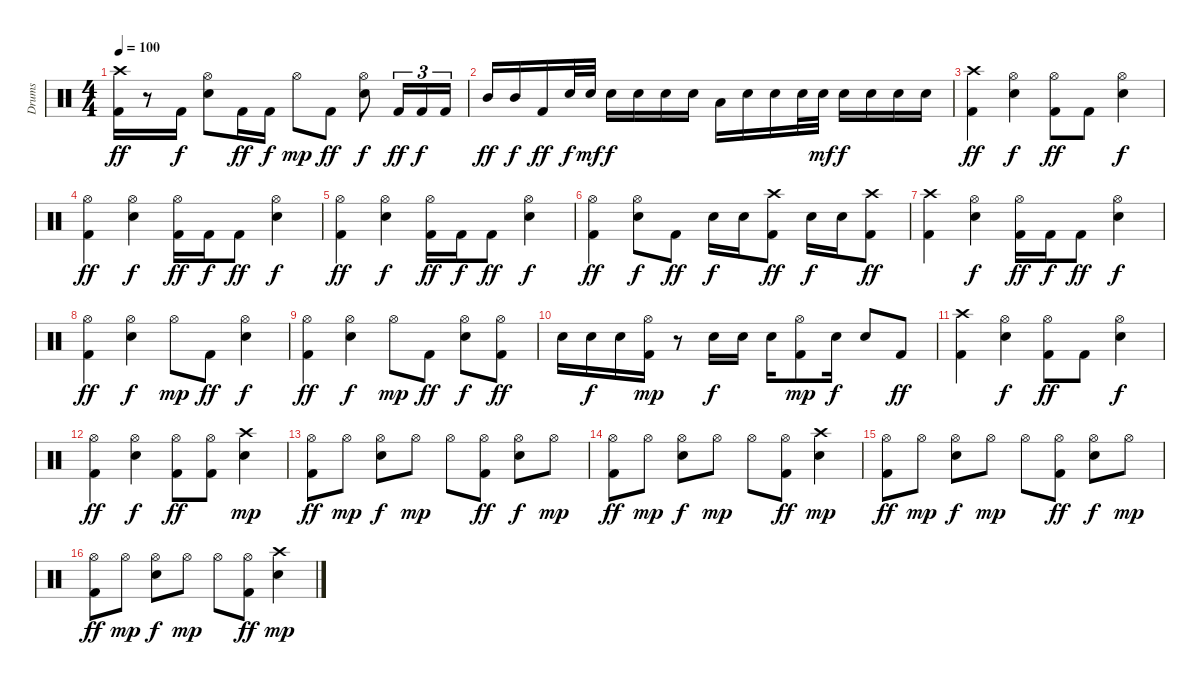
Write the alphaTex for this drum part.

\track ("Drums" "Drums") {instrument percussion}
\staff {score}
\articulation defaults
\ts (4 4)
\tempo 100
\clef neutral
\ks c
("Crash high (hit)" "Kick (hit) 2").16{dy ff} r.8 "Kick (hit) 2".16{dy f} ("Hi-Hat (open)" "Electric Snare (hit)").8 "Kick (hit) 2".16{dy ff} "Kick (hit) 2".16{dy f} "Hi-Hat (open)".8{dy mp} "Kick (hit) 2".8{dy ff} ("Hi-Hat (open)" "Electric Snare (hit)").8{dy f} "Kick (hit) 2".16{tu (3 2) dy ff} "Kick (hit) 2".16{tu (3 2) dy f} "Kick (hit) 2".16{tu (3 2)} |
"Mid Tom (hit)".16{dy ff} "Mid Tom (hit)".16{dy f} "Kick (hit) 2".16{dy ff} "Electric Snare (hit)".32{dy f} "Electric Snare (hit)".32{dy mf} "Electric Snare (hit)".16{dy f} "Electric Snare (hit)".16 "Electric Snare (hit)".16 "Electric Snare (hit)".16 "Low Tom (hit)".16 "Electric Snare (hit)".16 "Electric Snare (hit)".16 "Electric Snare (hit)".32 "Electric Snare (hit)".32{dy mf} "Electric Snare (hit)".16{dy f} "Electric Snare (hit)".16 "Electric Snare (hit)".16 "Electric Snare (hit)".16 |
("Crash high (hit)" "Kick (hit) 2").4{dy ff} ("Hi-Hat (open)" "Electric Snare (hit)").4{dy f} ("Hi-Hat (open)" "Kick (hit) 2").8{dy ff} "Kick (hit) 2".8 ("Hi-Hat (open)" "Electric Snare (hit)").4{dy f} |
("Hi-Hat (open)" "Kick (hit) 2").4{dy ff} ("Hi-Hat (open)" "Electric Snare (hit)").4{dy f} ("Hi-Hat (open)" "Kick (hit) 2").16{dy ff} "Kick (hit) 2".16{dy f} "Kick (hit) 2".8{dy ff} ("Hi-Hat (open)" "Electric Snare (hit)").4{dy f} |
("Hi-Hat (open)" "Kick (hit) 2").4{dy ff} ("Hi-Hat (open)" "Electric Snare (hit)").4{dy f} ("Hi-Hat (open)" "Kick (hit) 2").16{dy ff} "Kick (hit) 2".16{dy f} "Kick (hit) 2".8{dy ff} ("Hi-Hat (open)" "Electric Snare (hit)").4{dy f} |
("Hi-Hat (open)" "Kick (hit) 2").4{dy ff} ("Hi-Hat (open)" "Electric Snare (hit)").8{dy f} "Kick (hit) 2".8{dy ff} "Electric Snare (hit)".16{dy f} "Electric Snare (hit)".16 ("Crash high (hit)" "Kick (hit) 2").8{dy ff} "Electric Snare (hit)".16{dy f} "Electric Snare (hit)".16 ("Crash high (hit)" "Kick (hit) 2").8{dy ff} |
("Crash high (hit)" "Kick (hit) 2").4 ("Hi-Hat (open)" "Electric Snare (hit)").4{dy f} ("Hi-Hat (open)" "Kick (hit) 2").16{dy ff} "Kick (hit) 2".16{dy f} "Kick (hit) 2".8{dy ff} ("Hi-Hat (open)" "Electric Snare (hit)").4{dy f} |
("Hi-Hat (open)" "Kick (hit) 2").4{dy ff} ("Hi-Hat (open)" "Electric Snare (hit)").4{dy f} "Hi-Hat (open)".8{dy mp} "Kick (hit) 2".8{dy ff} ("Hi-Hat (open)" "Electric Snare (hit)").4{dy f} |
("Hi-Hat (open)" "Kick (hit) 2").4{dy ff} ("Hi-Hat (open)" "Electric Snare (hit)").4{dy f} "Hi-Hat (open)".8{dy mp} "Kick (hit) 2".8{dy ff} ("Hi-Hat (open)" "Electric Snare (hit)").8{dy f} ("Hi-Hat (open)" "Kick (hit) 2").8{dy ff} |
"Electric Snare (hit)".16 "Electric Snare (hit)".16{dy f} "Electric Snare (hit)".16 ("Hi-Hat (open)" "Kick (hit) 2").16{dy mp} r.8 "Electric Snare (hit)".16{dy f} "Electric Snare (hit)".16 "Electric Snare (hit)".16 ("Hi-Hat (open)" "Kick (hit) 2").8{dy mp} "Electric Snare (hit)".16{dy f} "Electric Snare (hit)".8 "Kick (hit) 2".8{dy ff} |
("Crash high (hit)" "Kick (hit) 2").4 ("Hi-Hat (open)" "Electric Snare (hit)").4{dy f} ("Hi-Hat (open)" "Kick (hit) 2").8{dy ff} "Kick (hit) 2".8 ("Hi-Hat (open)" "Electric Snare (hit)").4{dy f} |
("Hi-Hat (open)" "Kick (hit) 2").4{dy ff} ("Hi-Hat (open)" "Electric Snare (hit)").4{dy f} ("Hi-Hat (open)" "Kick (hit) 2").8{dy ff} ("Hi-Hat (open)" "Kick (hit) 2").8 ("Crash high (hit)" "Electric Snare (hit)").4{dy mp} |
("Hi-Hat (open)" "Kick (hit) 2").8{dy ff} "Hi-Hat (open)".8{dy mp} ("Hi-Hat (open)" "Electric Snare (hit)").8{dy f} "Hi-Hat (open)".8{dy mp} "Hi-Hat (open)".8 ("Hi-Hat (open)" "Kick (hit) 2").8{dy ff} ("Hi-Hat (open)" "Electric Snare (hit)").8{dy f} "Hi-Hat (open)".8{dy mp} |
("Hi-Hat (open)" "Kick (hit) 2").8{dy ff} "Hi-Hat (open)".8{dy mp} ("Hi-Hat (open)" "Electric Snare (hit)").8{dy f} "Hi-Hat (open)".8{dy mp} "Hi-Hat (open)".8 ("Hi-Hat (open)" "Kick (hit) 2").8{dy ff} ("Crash high (hit)" "Electric Snare (hit)").4{dy mp} |
("Hi-Hat (open)" "Kick (hit) 2").8{dy ff} "Hi-Hat (open)".8{dy mp} ("Hi-Hat (open)" "Electric Snare (hit)").8{dy f} "Hi-Hat (open)".8{dy mp} "Hi-Hat (open)".8 ("Hi-Hat (open)" "Kick (hit) 2").8{dy ff} ("Hi-Hat (open)" "Electric Snare (hit)").8{dy f} "Hi-Hat (open)".8{dy mp} |
("Hi-Hat (open)" "Kick (hit) 2").8{dy ff} "Hi-Hat (open)".8{dy mp} ("Hi-Hat (open)" "Electric Snare (hit)").8{dy f} "Hi-Hat (open)".8{dy mp} "Hi-Hat (open)".8 ("Hi-Hat (open)" "Kick (hit) 2").8{dy ff} ("Crash high (hit)" "Electric Snare (hit)").4{dy mp}
